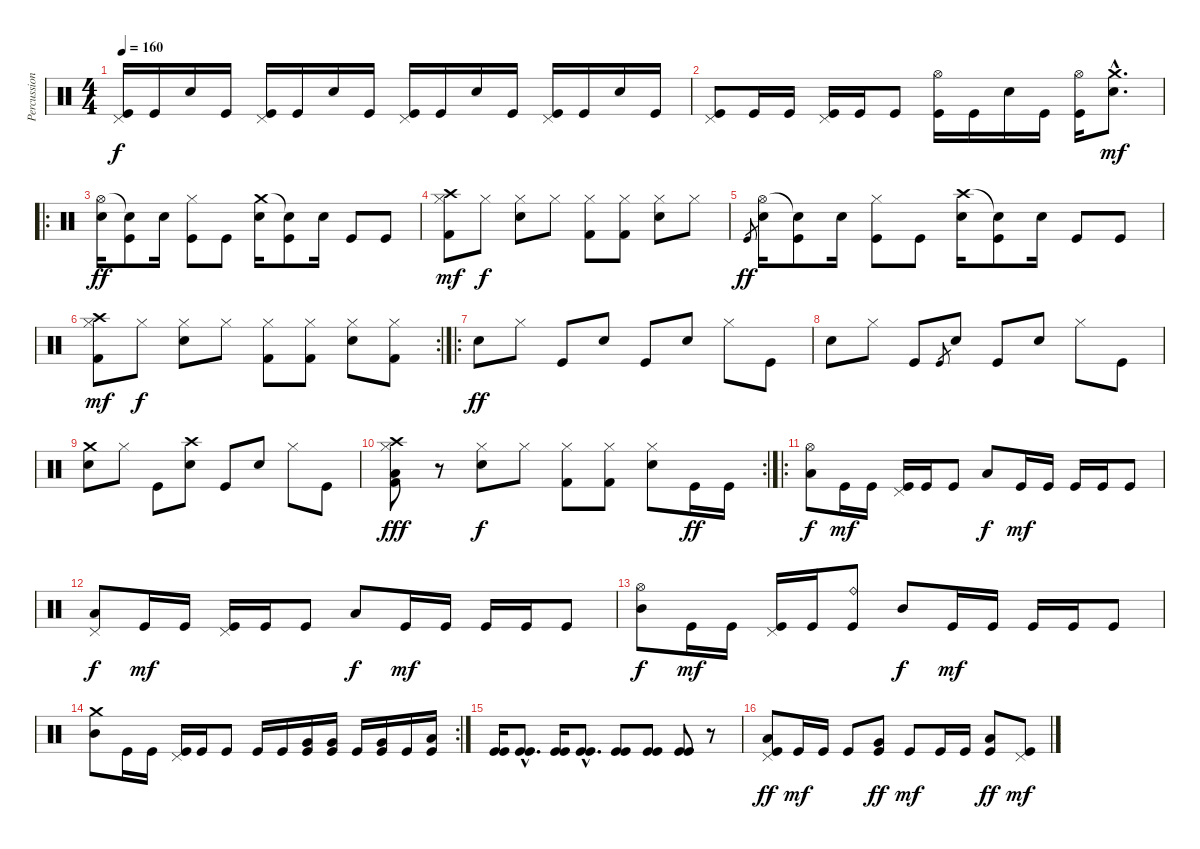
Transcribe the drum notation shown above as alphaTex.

\track ("Percussion" "Percussion") {instrument percussion}
\staff {score}
\articulation defaults
\ts (4 4)
\tempo 160
\clef neutral
\ks c
("Kick (hit)" "Pedal Hi-Hat (hit)").16{dy f} "Kick (hit)".16 "Electric Snare (hit)".16 "Kick (hit)".16 ("Kick (hit)" "Pedal Hi-Hat (hit)").16 "Kick (hit)".16 "Electric Snare (hit)".16 "Kick (hit)".16 ("Kick (hit)" "Pedal Hi-Hat (hit)").16 "Kick (hit)".16 "Electric Snare (hit)".16 "Kick (hit)".16 ("Kick (hit)" "Pedal Hi-Hat (hit)").16 "Kick (hit)".16 "Electric Snare (hit)".16 "Kick (hit)".16 |
("Kick (hit)" "Pedal Hi-Hat (hit)").8 "Kick (hit)".16 "Kick (hit)".16 ("Kick (hit)" "Pedal Hi-Hat (hit)").16 "Kick (hit)".16 "Kick (hit)".8 ("Kick (hit)" "Hi-Hat (open)").16 "Kick (hit)".16 "Snare (hit) 2".16 "Kick (hit)".16 ("Kick (hit)" "Hi-Hat (open)").16 ("Snare (hit) 2"{hac} "Crash medium (hit)"{hac}).8{d dy mf} |
\ro
("Electric Snare (hit)" "Hi-Hat (open)").16{dy ff} ("Kick (hit)" "Snare (hit)"{t}).8 "Electric Snare (hit)".16 ("Kick (hit)" "Hi-Hat (closed)").8 "Kick (hit)".8 ("Snare (hit) 2" "Crash medium (hit)").16 ("Kick (hit)" "Snare (hit)"{t}).8 "Snare (hit) 2".16 "Kick (hit)".8 "Kick (hit)".8 |
("Kick (hit) 2" "Hi-Hat (closed)" "Crash high (hit)").8{dy mf} "Hi-Hat (closed)".8{dy f} ("Snare (hit) 2" "Hi-Hat (closed)").8 "Hi-Hat (closed)".8 ("Kick (hit) 2" "Hi-Hat (closed)").8 ("Kick (hit) 2" "Hi-Hat (closed)").8 ("Snare (hit) 2" "Hi-Hat (closed)").8 "Hi-Hat (closed)".8 |
"Kick (hit)".8{gr dy ff} ("Electric Snare (hit)" "Hi-Hat (open)").16 ("Kick (hit)" "Snare (hit)"{t}).8 "Electric Snare (hit)".16 ("Kick (hit)" "Hi-Hat (closed)").8 "Kick (hit)".8 ("Snare (hit) 2" "Crash high (hit)").16 ("Kick (hit)" "Snare (hit)"{t}).8 "Snare (hit) 2".16 "Kick (hit)".8 "Kick (hit)".8 |
\rc 2
("Kick (hit) 2" "Hi-Hat (closed)" "Crash high (hit)").8{dy mf} "Hi-Hat (closed)".8{dy f} ("Snare (hit) 2" "Hi-Hat (closed)").8 "Hi-Hat (closed)".8 ("Kick (hit) 2" "Hi-Hat (closed)").8 ("Kick (hit) 2" "Hi-Hat (closed)").8 ("Snare (hit) 2" "Hi-Hat (closed)").8 ("Kick (hit) 2" "Hi-Hat (closed)").8 |
\ro "Electric Snare (hit)".8{dy ff} "Hi-Hat (closed)".8 "Kick (hit)".8 "Electric Snare (hit)".8 "Kick (hit)".8 "Electric Snare (hit)".8 "Hi-Hat (closed)".8 "Kick (hit)".8
|
"Electric Snare (hit)".8 "Hi-Hat (closed)".8 "Kick (hit)".8 "Kick (hit)".8{gr} "Electric Snare (hit)".8 "Kick (hit)".8 "Electric Snare (hit)".8 "Hi-Hat (closed)".8 "Kick (hit)".8 |
("Electric Snare (hit)" "Crash medium (hit)").8 "Hi-Hat (closed)".8 "Kick (hit)".8 ("Electric Snare (hit)" "Crash high (hit)").8 "Kick (hit)".8 "Electric Snare (hit)".8 "Hi-Hat (closed)".8 "Kick (hit)".8 |
\rc 2
("Kick (hit) 2" "Hi-Hat (closed)" "Crash high (hit)" "Low Floor Tom (hit)").8{dy fff} r.8 ("Snare (hit) 2" "Hi-Hat (closed)").8{dy f} "Hi-Hat (closed)".8 ("Kick (hit) 2" "Hi-Hat (closed)").8 ("Kick (hit) 2" "Hi-Hat (closed)").8 ("Snare (hit) 2" "Hi-Hat (closed)").8 "Kick (hit)".16{dy ff} "Kick (hit)".16 |
\ro
("Low Tom (hit)" "Hi-Hat (open)").8{dy f} "Kick (hit)".16{dy mf} "Kick (hit)".16 ("Kick (hit)" "Pedal Hi-Hat (hit)").16 "Kick (hit)".16 "Kick (hit)".8 "Low Tom (hit)".8{dy f} "Kick (hit)".16{dy mf} "Kick (hit)".16 "Kick (hit)".16 "Kick (hit)".16 "Kick (hit)".8 |
("Low Tom (hit)" "Pedal Hi-Hat (hit)").8{dy f} "Kick (hit)".16{dy mf} "Kick (hit)".16 ("Kick (hit)" "Pedal Hi-Hat (hit)").16 "Kick (hit)".16 "Kick (hit)".8 "Low Tom (hit)".8{dy f} "Kick (hit)".16{dy mf} "Kick (hit)".16 "Kick (hit)".16 "Kick (hit)".16 "Kick (hit)".8 |
("Mid Tom (hit)" "Hi-Hat (open)").8{dy f} "Kick (hit)".16{dy mf} "Kick (hit)".16 ("Kick (hit)" "Pedal Hi-Hat (hit)").16 "Kick (hit)".16 ("Kick (hit)" "Ride (bell)").8 "Mid Tom (hit)".8{dy f} "Kick (hit)".16{dy mf} "Kick (hit)".16 "Kick (hit)".16 "Kick (hit)".16 "Kick (hit)".8 |
\rc 2
("Mid Tom (hit)" "Crash medium (hit)").8 "Kick (hit)".16 "Kick (hit)".16 ("Kick (hit)" "Pedal Hi-Hat (hit)").16 "Kick (hit)".16 "Kick (hit)".8 "Kick (hit)".16 "Kick (hit)".16 ("Kick (hit)" "Very Low Tom (hit)").16 ("Kick (hit)" "Very Low Tom (hit)").16 "Kick (hit)".16 ("Kick (hit)" "Very Low Tom (hit)").16 "Kick (hit)".16 ("Kick (hit)" "Low Floor Tom (hit)").16 |
("Kick (hit)" "Kick (hit)").16 ("Kick (hit)"{hac} "Kick (hit)"{hac}).8{d} ("Kick (hit)" "Kick (hit)").16 ("Kick (hit)"{hac} "Kick (hit)"{hac}).8{d} ("Kick (hit)" "Kick (hit)").8 ("Kick (hit)" "Kick (hit)").8 ("Kick (hit)" "Kick (hit)").8 r.8 |
("Kick (hit)" "Low Tom (hit)" "Pedal Hi-Hat (hit)").8{dy ff} "Kick (hit)".16{dy mf} "Kick (hit)".16 "Kick (hit)".8 ("Kick (hit)" "Very Low Tom (hit)").8{dy ff} "Kick (hit)".8{dy mf} "Kick (hit)".16 "Kick (hit)".16 ("Kick (hit)" "Low Floor Tom (hit)").8{dy ff} ("Kick (hit)" "Pedal Hi-Hat (hit)").8{dy mf}
